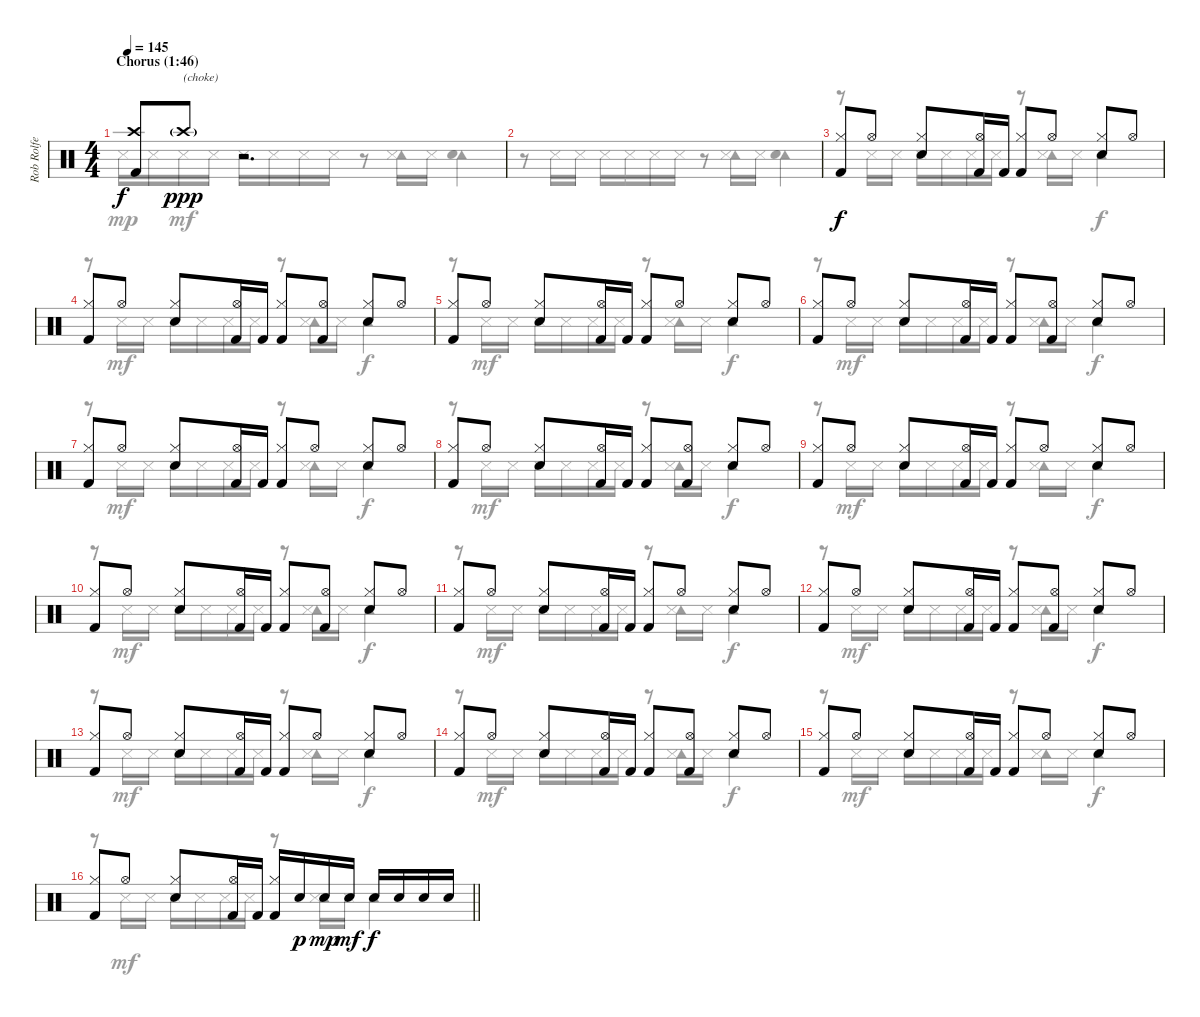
\track ("Rob Rolfe [Drums]" "Rob Rolfe ") {instrument percussion}
\staff {score}
\articulation defaults
\voice
\ts (4 4)
\section ("" "Chorus (1:46)")
\tempo 145
\clef neutral
\ks c
("Crash high (hit)" "Kick (hit) 2").8{dy f} "Crash high (hit)"{g}.8{txt "(choke)" dy ppp} r.2{d} |
|
("Hi-Hat (closed)" "Kick (hit) 2").8{dy f} "Hi-Hat (open)".8 ("Hi-Hat (closed)" "Snare (hit) 2").8 ("Hi-Hat (open)" "Kick (hit) 2").16 "Kick (hit) 2".16 ("Hi-Hat (closed)" "Kick (hit) 2").8 "Hi-Hat (open)".8 ("Hi-Hat (closed)" "Snare (hit) 2").8 "Hi-Hat (open)".8 |
("Hi-Hat (closed)" "Kick (hit) 2").8 "Hi-Hat (open)".8 ("Hi-Hat (closed)" "Snare (hit) 2").8 ("Hi-Hat (open)" "Kick (hit) 2").16 "Kick (hit) 2".16 ("Hi-Hat (closed)" "Kick (hit) 2").8 ("Hi-Hat (open)" "Kick (hit) 2").8 ("Hi-Hat (closed)" "Snare (hit) 2").8 "Hi-Hat (open)".8 |
("Hi-Hat (closed)" "Kick (hit) 2").8 "Hi-Hat (open)".8 ("Hi-Hat (closed)" "Snare (hit) 2").8 ("Hi-Hat (open)" "Kick (hit) 2").16 "Kick (hit) 2".16 ("Hi-Hat (closed)" "Kick (hit) 2").8 "Hi-Hat (open)".8 ("Hi-Hat (closed)" "Snare (hit) 2").8 "Hi-Hat (open)".8 |
("Hi-Hat (closed)" "Kick (hit) 2").8 "Hi-Hat (open)".8 ("Hi-Hat (closed)" "Snare (hit) 2").8 ("Hi-Hat (open)" "Kick (hit) 2").16 "Kick (hit) 2".16 ("Hi-Hat (closed)" "Kick (hit) 2").8 ("Hi-Hat (open)" "Kick (hit) 2").8 ("Hi-Hat (closed)" "Snare (hit) 2").8 "Hi-Hat (open)".8 |
("Hi-Hat (closed)" "Kick (hit) 2").8 "Hi-Hat (open)".8 ("Hi-Hat (closed)" "Snare (hit) 2").8 ("Hi-Hat (open)" "Kick (hit) 2").16 "Kick (hit) 2".16 ("Hi-Hat (closed)" "Kick (hit) 2").8 "Hi-Hat (open)".8 ("Hi-Hat (closed)" "Snare (hit) 2").8 "Hi-Hat (open)".8 |
("Hi-Hat (closed)" "Kick (hit) 2").8 "Hi-Hat (open)".8 ("Hi-Hat (closed)" "Snare (hit) 2").8 ("Hi-Hat (open)" "Kick (hit) 2").16 "Kick (hit) 2".16 ("Hi-Hat (closed)" "Kick (hit) 2").8 ("Hi-Hat (open)" "Kick (hit) 2").8 ("Hi-Hat (closed)" "Snare (hit) 2").8 "Hi-Hat (open)".8 |
("Hi-Hat (closed)" "Kick (hit) 2").8 "Hi-Hat (open)".8 ("Hi-Hat (closed)" "Snare (hit) 2").8 ("Hi-Hat (open)" "Kick (hit) 2").16 "Kick (hit) 2".16 ("Hi-Hat (closed)" "Kick (hit) 2").8 "Hi-Hat (open)".8 ("Hi-Hat (closed)" "Snare (hit) 2").8 "Hi-Hat (open)".8 |
("Hi-Hat (closed)" "Kick (hit) 2").8 "Hi-Hat (open)".8 ("Hi-Hat (closed)" "Snare (hit) 2").8 ("Hi-Hat (open)" "Kick (hit) 2").16 "Kick (hit) 2".16 ("Hi-Hat (closed)" "Kick (hit) 2").8 ("Hi-Hat (open)" "Kick (hit) 2").8 ("Hi-Hat (closed)" "Snare (hit) 2").8 "Hi-Hat (open)".8 |
("Hi-Hat (closed)" "Kick (hit) 2").8 "Hi-Hat (open)".8 ("Hi-Hat (closed)" "Snare (hit) 2").8 ("Hi-Hat (open)" "Kick (hit) 2").16 "Kick (hit) 2".16 ("Hi-Hat (closed)" "Kick (hit) 2").8 "Hi-Hat (open)".8 ("Hi-Hat (closed)" "Snare (hit) 2").8 "Hi-Hat (open)".8 |
("Hi-Hat (closed)" "Kick (hit) 2").8 "Hi-Hat (open)".8 ("Hi-Hat (closed)" "Snare (hit) 2").8 ("Hi-Hat (open)" "Kick (hit) 2").16 "Kick (hit) 2".16 ("Hi-Hat (closed)" "Kick (hit) 2").8 ("Hi-Hat (open)" "Kick (hit) 2").8 ("Hi-Hat (closed)" "Snare (hit) 2").8 "Hi-Hat (open)".8 |
("Hi-Hat (closed)" "Kick (hit) 2").8 "Hi-Hat (open)".8 ("Hi-Hat (closed)" "Snare (hit) 2").8 ("Hi-Hat (open)" "Kick (hit) 2").16 "Kick (hit) 2".16 ("Hi-Hat (closed)" "Kick (hit) 2").8 "Hi-Hat (open)".8 ("Hi-Hat (closed)" "Snare (hit) 2").8 "Hi-Hat (open)".8 |
("Hi-Hat (closed)" "Kick (hit) 2").8 "Hi-Hat (open)".8 ("Hi-Hat (closed)" "Snare (hit) 2").8 ("Hi-Hat (open)" "Kick (hit) 2").16 "Kick (hit) 2".16 ("Hi-Hat (closed)" "Kick (hit) 2").8 ("Hi-Hat (open)" "Kick (hit) 2").8 ("Hi-Hat (closed)" "Snare (hit) 2").8 "Hi-Hat (open)".8 |
("Hi-Hat (closed)" "Kick (hit) 2").8 "Hi-Hat (open)".8 ("Hi-Hat (closed)" "Snare (hit) 2").8 ("Hi-Hat (open)" "Kick (hit) 2").16 "Kick (hit) 2".16 ("Hi-Hat (closed)" "Kick (hit) 2").8 "Hi-Hat (open)".8 ("Hi-Hat (closed)" "Snare (hit) 2").8 "Hi-Hat (open)".8 |
\barLineRight lightlight
("Hi-Hat (closed)" "Kick (hit) 2").8 "Hi-Hat (open)".8 ("Hi-Hat (closed)" "Snare (hit) 2").8 ("Hi-Hat (open)" "Kick (hit) 2").16 "Kick (hit) 2".16 ("Hi-Hat (closed)" "Kick (hit) 2").16 "Snare (hit) 2".16{dy p} "Snare (hit) 2".16{dy mp} "Snare (hit) 2".16{dy mf} "Snare (hit) 2".16{dy f} "Snare (hit) 2".16 "Snare (hit) 2".16 "Snare (hit) 2".16
\voice
\clef neutral
\ottava regular
\simile none
\ks c "Snare (side stick) 3".16{dy mp} "Snare (side stick) 3".16 "Snare (side stick) 3".16{dy mf} "Snare (side stick) 3".16 "Snare (side stick) 3".16 "Snare (side stick) 3".16 "Snare (side stick) 3".16 "Snare (side stick) 3".16
r.8 ("Tambourine (hit)" "Snare (side stick) 3").16 "Snare (side stick) 3".16 ("Tambourine (hit)" "Snare (hit) 2").4 |
r.8 "Snare (side stick) 3".16 "Snare (side stick) 3".16 "Snare (side stick) 3".16 "Snare (side stick) 3".16 "Snare (side stick) 3".16 "Snare (side stick) 3".16 r.8 ("Tambourine (hit)" "Snare (side stick) 3").16 "Snare (side stick) 3".16 ("Tambourine (hit)" "Snare (hit) 2").4 |
r.8 "Snare (side stick) 3".16 "Snare (side stick) 3".16 "Snare (side stick) 3".16 "Snare (side stick) 3".16 "Snare (side stick) 3".16 "Snare (side stick) 3".16 r.8 ("Tambourine (hit)" "Snare (side stick) 3").16 "Snare (side stick) 3".16 "Tambourine (hit)".4{dy f} |
r.8 "Snare (side stick) 3".16{dy mf} "Snare (side stick) 3".16 "Snare (side stick) 3".16 "Snare (side stick) 3".16 "Snare (side stick) 3".16 "Snare (side stick) 3".16 r.8 ("Tambourine (hit)" "Snare (side stick) 3").16 "Snare (side stick) 3".16 "Tambourine (hit)".4{dy f} |
r.8 "Snare (side stick) 3".16{dy mf} "Snare (side stick) 3".16 "Snare (side stick) 3".16 "Snare (side stick) 3".16 "Snare (side stick) 3".16 "Snare (side stick) 3".16 r.8 ("Tambourine (hit)" "Snare (side stick) 3").16 "Snare (side stick) 3".16 "Tambourine (hit)".4{dy f} |
r.8 "Snare (side stick) 3".16{dy mf} "Snare (side stick) 3".16 "Snare (side stick) 3".16 "Snare (side stick) 3".16 "Snare (side stick) 3".16 "Snare (side stick) 3".16 r.8 ("Tambourine (hit)" "Snare (side stick) 3").16 "Snare (side stick) 3".16 "Tambourine (hit)".4{dy f} |
r.8 "Snare (side stick) 3".16{dy mf} "Snare (side stick) 3".16 "Snare (side stick) 3".16 "Snare (side stick) 3".16 "Snare (side stick) 3".16 "Snare (side stick) 3".16 r.8 ("Tambourine (hit)" "Snare (side stick) 3").16 "Snare (side stick) 3".16 "Tambourine (hit)".4{dy f} |
r.8 "Snare (side stick) 3".16{dy mf} "Snare (side stick) 3".16 "Snare (side stick) 3".16 "Snare (side stick) 3".16 "Snare (side stick) 3".16 "Snare (side stick) 3".16 r.8 ("Tambourine (hit)" "Snare (side stick) 3").16 "Snare (side stick) 3".16 "Tambourine (hit)".4{dy f} |
r.8 "Snare (side stick) 3".16{dy mf} "Snare (side stick) 3".16 "Snare (side stick) 3".16 "Snare (side stick) 3".16 "Snare (side stick) 3".16 "Snare (side stick) 3".16 r.8 ("Tambourine (hit)" "Snare (side stick) 3").16 "Snare (side stick) 3".16 "Tambourine (hit)".4{dy f} |
r.8 "Snare (side stick) 3".16{dy mf} "Snare (side stick) 3".16 "Snare (side stick) 3".16 "Snare (side stick) 3".16 "Snare (side stick) 3".16 "Snare (side stick) 3".16 r.8 ("Tambourine (hit)" "Snare (side stick) 3").16 "Snare (side stick) 3".16 "Tambourine (hit)".4{dy f} |
r.8 "Snare (side stick) 3".16{dy mf} "Snare (side stick) 3".16 "Snare (side stick) 3".16 "Snare (side stick) 3".16 "Snare (side stick) 3".16 "Snare (side stick) 3".16 r.8 ("Tambourine (hit)" "Snare (side stick) 3").16 "Snare (side stick) 3".16 "Tambourine (hit)".4{dy f} |
r.8 "Snare (side stick) 3".16{dy mf} "Snare (side stick) 3".16 "Snare (side stick) 3".16 "Snare (side stick) 3".16 "Snare (side stick) 3".16 "Snare (side stick) 3".16 r.8 ("Tambourine (hit)" "Snare (side stick) 3").16 "Snare (side stick) 3".16 "Tambourine (hit)".4{dy f} |
r.8 "Snare (side stick) 3".16{dy mf} "Snare (side stick) 3".16 "Snare (side stick) 3".16 "Snare (side stick) 3".16 "Snare (side stick) 3".16 "Snare (side stick) 3".16 r.8 ("Tambourine (hit)" "Snare (side stick) 3").16 "Snare (side stick) 3".16 "Tambourine (hit)".4{dy f} |
r.8 "Snare (side stick) 3".16{dy mf} "Snare (side stick) 3".16 "Snare (side stick) 3".16 "Snare (side stick) 3".16 "Snare (side stick) 3".16 "Snare (side stick) 3".16 r.8 ("Tambourine (hit)" "Snare (side stick) 3").16 "Snare (side stick) 3".16 "Tambourine (hit)".4{dy f} |
r.8 "Snare (side stick) 3".16{dy mf} "Snare (side stick) 3".16 "Snare (side stick) 3".16 "Snare (side stick) 3".16 "Snare (side stick) 3".16 "Snare (side stick) 3".16 r.8 ("Tambourine (hit)" "Snare (side stick) 3").16 "Snare (side stick) 3".16 "Tambourine (hit)".4{dy f} |
\barLineRight lightlight
r.8 "Snare (side stick) 3".16{dy mf} "Snare (side stick) 3".16 "Snare (side stick) 3".16 "Snare (side stick) 3".16 "Snare (side stick) 3".16 "Snare (side stick) 3".16 r.8 ("Tambourine (hit)" "Snare (side stick) 3").16 "Snare (side stick) 3".16 "Tambourine (hit)".4{dy f}
